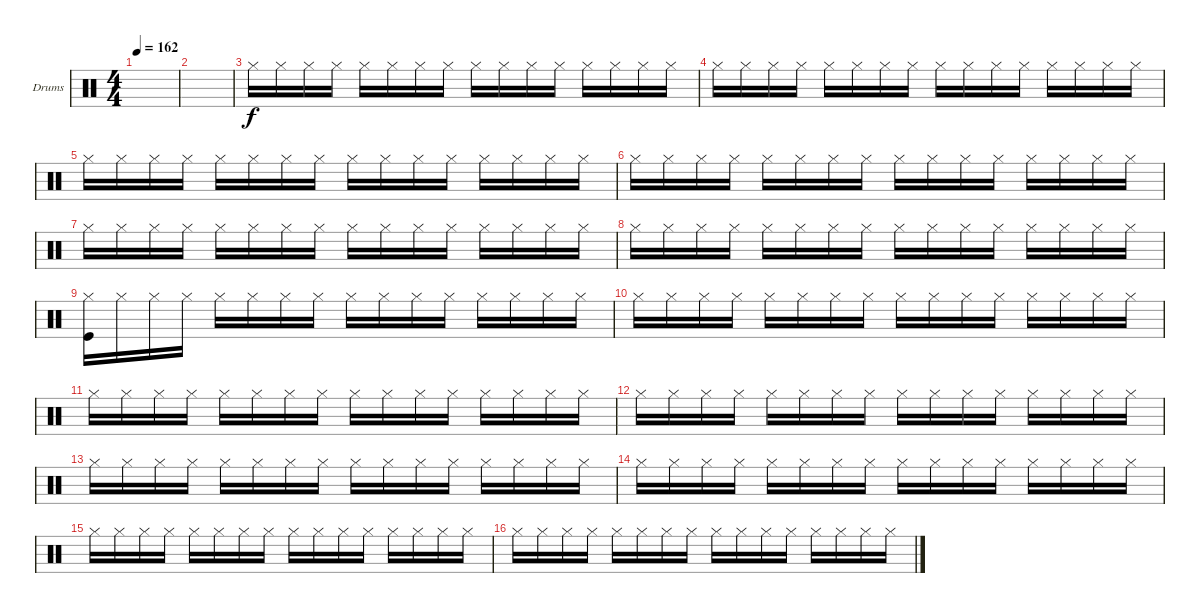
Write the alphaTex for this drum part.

\defaultSystemsLayout 4
\bracketExtendMode groupsimilarinstruments
\firstSystemTrackNameOrientation horizontal
\otherSystemsTrackNameOrientation horizontal
\track ("Drumkit" "Drums") {instrument percussion}
\staff {score}
\articulation defaults
\ts (4 4)
\tempo 162
\clef neutral
\scale
0.474178
\ks c
|
\scale
0.262911 |
\scale
0.262911 "Hi-Hat (closed)".16 "Hi-Hat (closed)".16 "Hi-Hat (closed)".16 "Hi-Hat (closed)".16 "Hi-Hat (closed)".16 "Hi-Hat (closed)".16 "Hi-Hat (closed)".16 "Hi-Hat (closed)".16 "Hi-Hat (closed)".16 "Hi-Hat (closed)".16 "Hi-Hat (closed)".16 "Hi-Hat (closed)".16 "Hi-Hat (closed)".16 "Hi-Hat (closed)".16 "Hi-Hat (closed)".16 "Hi-Hat (closed)".16 |
"Hi-Hat (closed)".16 "Hi-Hat (closed)".16 "Hi-Hat (closed)".16 "Hi-Hat (closed)".16 "Hi-Hat (closed)".16 "Hi-Hat (closed)".16 "Hi-Hat (closed)".16 "Hi-Hat (closed)".16 "Hi-Hat (closed)".16 "Hi-Hat (closed)".16 "Hi-Hat (closed)".16 "Hi-Hat (closed)".16 "Hi-Hat (closed)".16 "Hi-Hat (closed)".16 "Hi-Hat (closed)".16 "Hi-Hat (closed)".16 |
"Hi-Hat (closed)".16 "Hi-Hat (closed)".16 "Hi-Hat (closed)".16 "Hi-Hat (closed)".16 "Hi-Hat (closed)".16 "Hi-Hat (closed)".16 "Hi-Hat (closed)".16 "Hi-Hat (closed)".16 "Hi-Hat (closed)".16 "Hi-Hat (closed)".16 "Hi-Hat (closed)".16 "Hi-Hat (closed)".16 "Hi-Hat (closed)".16 "Hi-Hat (closed)".16 "Hi-Hat (closed)".16 "Hi-Hat (closed)".16 |
"Hi-Hat (closed)".16 "Hi-Hat (closed)".16 "Hi-Hat (closed)".16 "Hi-Hat (closed)".16 "Hi-Hat (closed)".16 "Hi-Hat (closed)".16 "Hi-Hat (closed)".16 "Hi-Hat (closed)".16 "Hi-Hat (closed)".16 "Hi-Hat (closed)".16 "Hi-Hat (closed)".16 "Hi-Hat (closed)".16 "Hi-Hat (closed)".16 "Hi-Hat (closed)".16 "Hi-Hat (closed)".16 "Hi-Hat (closed)".16 |
"Hi-Hat (closed)".16 "Hi-Hat (closed)".16 "Hi-Hat (closed)".16 "Hi-Hat (closed)".16 "Hi-Hat (closed)".16 "Hi-Hat (closed)".16 "Hi-Hat (closed)".16 "Hi-Hat (closed)".16 "Hi-Hat (closed)".16 "Hi-Hat (closed)".16 "Hi-Hat (closed)".16 "Hi-Hat (closed)".16 "Hi-Hat (closed)".16 "Hi-Hat (closed)".16 "Hi-Hat (closed)".16 "Hi-Hat (closed)".16 |
"Hi-Hat (closed)".16 "Hi-Hat (closed)".16 "Hi-Hat (closed)".16 "Hi-Hat (closed)".16 "Hi-Hat (closed)".16 "Hi-Hat (closed)".16 "Hi-Hat (closed)".16 "Hi-Hat (closed)".16 "Hi-Hat (closed)".16 "Hi-Hat (closed)".16 "Hi-Hat (closed)".16 "Hi-Hat (closed)".16 "Hi-Hat (closed)".16 "Hi-Hat (closed)".16 "Hi-Hat (closed)".16 "Hi-Hat (closed)".16 |
("Hi-Hat (closed)" "Kick (hit)").16 "Hi-Hat (closed)".16 "Hi-Hat (closed)".16 "Hi-Hat (closed)".16 "Hi-Hat (closed)".16 "Hi-Hat (closed)".16 "Hi-Hat (closed)".16 "Hi-Hat (closed)".16 "Hi-Hat (closed)".16 "Hi-Hat (closed)".16 "Hi-Hat (closed)".16 "Hi-Hat (closed)".16 "Hi-Hat (closed)".16 "Hi-Hat (closed)".16 "Hi-Hat (closed)".16 "Hi-Hat (closed)".16 |
"Hi-Hat (closed)".16 "Hi-Hat (closed)".16 "Hi-Hat (closed)".16 "Hi-Hat (closed)".16 "Hi-Hat (closed)".16 "Hi-Hat (closed)".16 "Hi-Hat (closed)".16 "Hi-Hat (closed)".16 "Hi-Hat (closed)".16 "Hi-Hat (closed)".16 "Hi-Hat (closed)".16 "Hi-Hat (closed)".16 "Hi-Hat (closed)".16 "Hi-Hat (closed)".16 "Hi-Hat (closed)".16 "Hi-Hat (closed)".16 |
"Hi-Hat (closed)".16 "Hi-Hat (closed)".16 "Hi-Hat (closed)".16 "Hi-Hat (closed)".16 "Hi-Hat (closed)".16 "Hi-Hat (closed)".16 "Hi-Hat (closed)".16 "Hi-Hat (closed)".16 "Hi-Hat (closed)".16 "Hi-Hat (closed)".16 "Hi-Hat (closed)".16 "Hi-Hat (closed)".16 "Hi-Hat (closed)".16 "Hi-Hat (closed)".16 "Hi-Hat (closed)".16 "Hi-Hat (closed)".16 |
"Hi-Hat (closed)".16 "Hi-Hat (closed)".16 "Hi-Hat (closed)".16 "Hi-Hat (closed)".16 "Hi-Hat (closed)".16 "Hi-Hat (closed)".16 "Hi-Hat (closed)".16 "Hi-Hat (closed)".16 "Hi-Hat (closed)".16 "Hi-Hat (closed)".16 "Hi-Hat (closed)".16 "Hi-Hat (closed)".16 "Hi-Hat (closed)".16 "Hi-Hat (closed)".16 "Hi-Hat (closed)".16 "Hi-Hat (closed)".16 |
"Hi-Hat (closed)".16 "Hi-Hat (closed)".16 "Hi-Hat (closed)".16 "Hi-Hat (closed)".16 "Hi-Hat (closed)".16 "Hi-Hat (closed)".16 "Hi-Hat (closed)".16 "Hi-Hat (closed)".16 "Hi-Hat (closed)".16 "Hi-Hat (closed)".16 "Hi-Hat (closed)".16 "Hi-Hat (closed)".16 "Hi-Hat (closed)".16 "Hi-Hat (closed)".16 "Hi-Hat (closed)".16 "Hi-Hat (closed)".16 |
"Hi-Hat (closed)".16 "Hi-Hat (closed)".16 "Hi-Hat (closed)".16 "Hi-Hat (closed)".16 "Hi-Hat (closed)".16 "Hi-Hat (closed)".16 "Hi-Hat (closed)".16 "Hi-Hat (closed)".16 "Hi-Hat (closed)".16 "Hi-Hat (closed)".16 "Hi-Hat (closed)".16 "Hi-Hat (closed)".16 "Hi-Hat (closed)".16 "Hi-Hat (closed)".16 "Hi-Hat (closed)".16 "Hi-Hat (closed)".16 |
"Hi-Hat (closed)".16 "Hi-Hat (closed)".16 "Hi-Hat (closed)".16 "Hi-Hat (closed)".16 "Hi-Hat (closed)".16 "Hi-Hat (closed)".16 "Hi-Hat (closed)".16 "Hi-Hat (closed)".16 "Hi-Hat (closed)".16 "Hi-Hat (closed)".16 "Hi-Hat (closed)".16 "Hi-Hat (closed)".16 "Hi-Hat (closed)".16 "Hi-Hat (closed)".16 "Hi-Hat (closed)".16 "Hi-Hat (closed)".16 |
"Hi-Hat (closed)".16 "Hi-Hat (closed)".16 "Hi-Hat (closed)".16 "Hi-Hat (closed)".16 "Hi-Hat (closed)".16 "Hi-Hat (closed)".16 "Hi-Hat (closed)".16 "Hi-Hat (closed)".16 "Hi-Hat (closed)".16 "Hi-Hat (closed)".16 "Hi-Hat (closed)".16 "Hi-Hat (closed)".16 "Hi-Hat (closed)".16 "Hi-Hat (closed)".16 "Hi-Hat (closed)".16 "Hi-Hat (closed)".16
